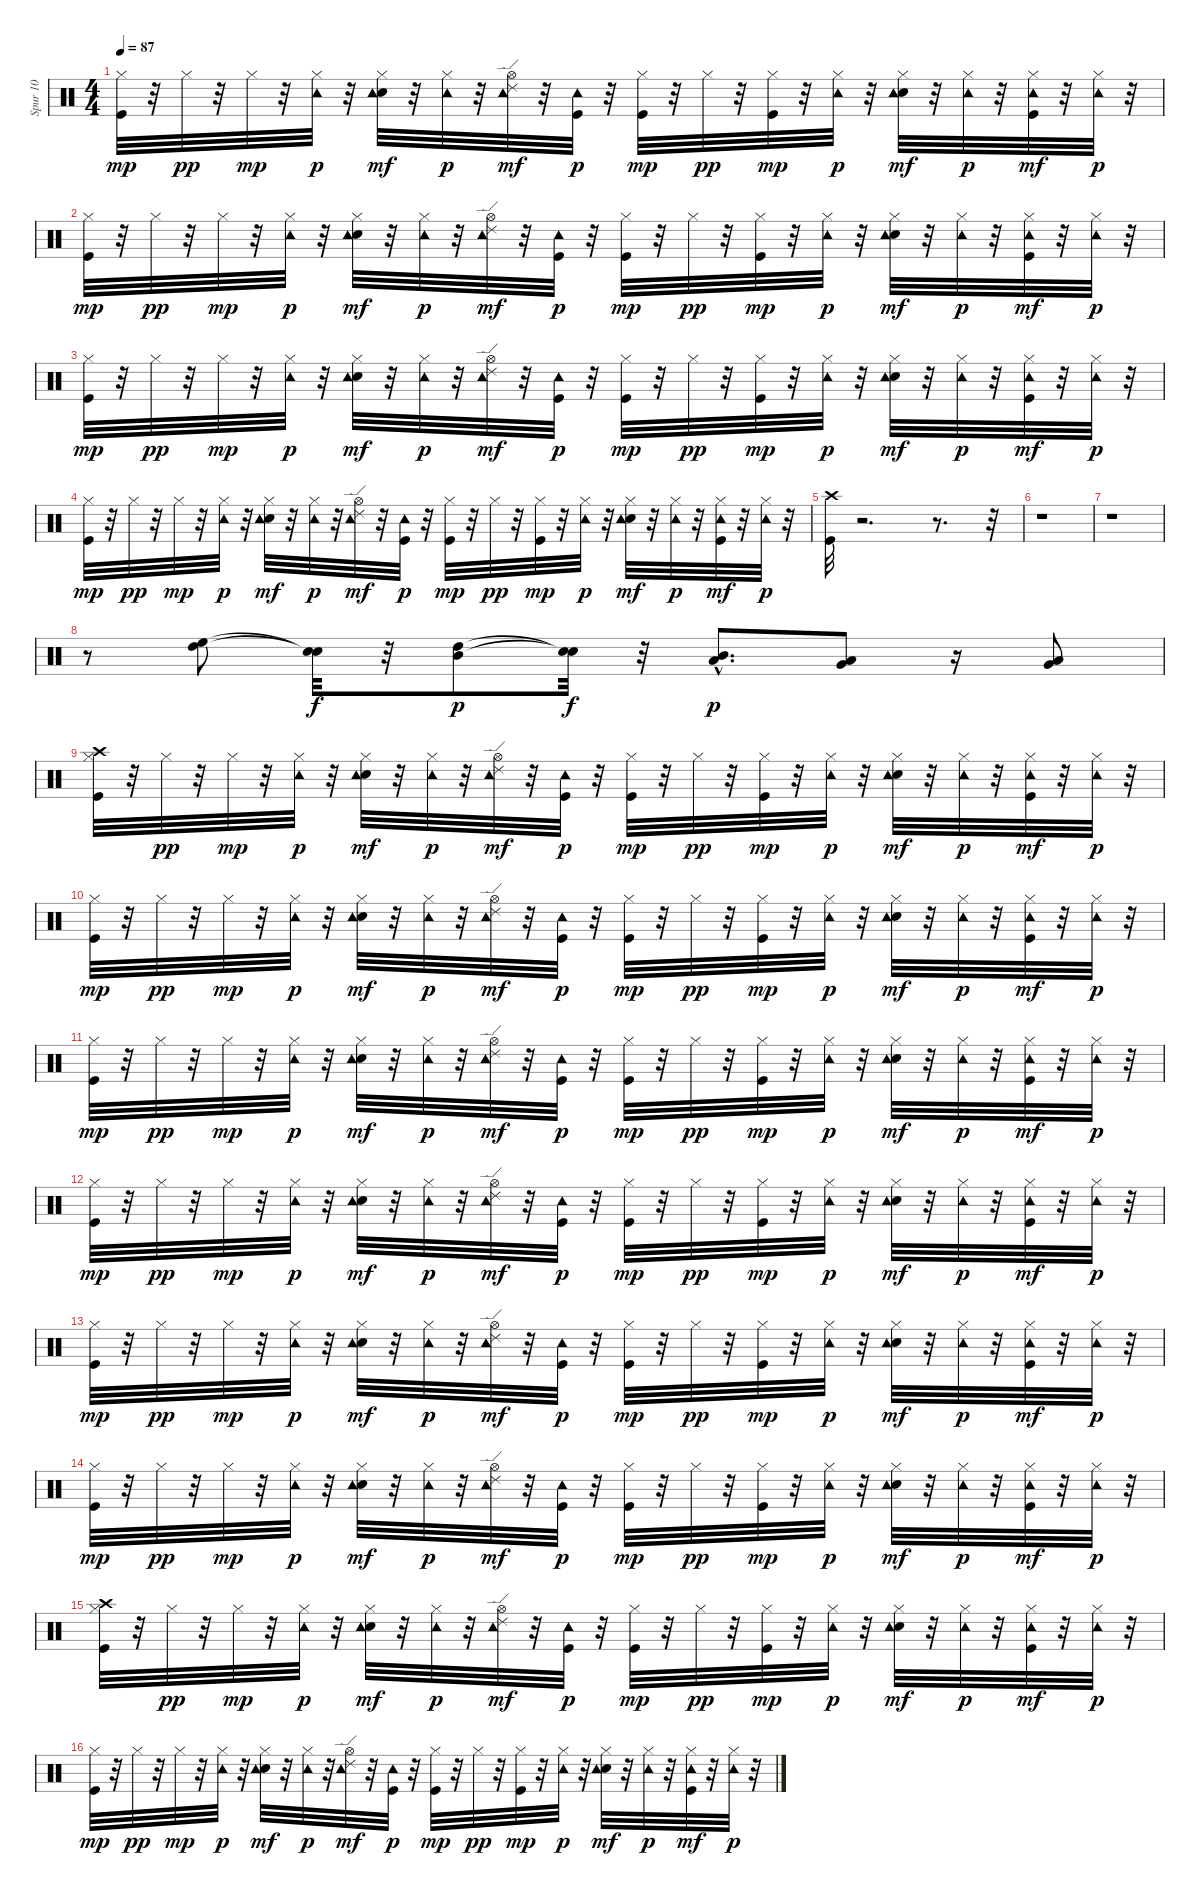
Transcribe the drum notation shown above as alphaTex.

\track ("Spur 10" "Spur 10") {instrument percussion}
\staff {score}
\articulation defaults
\ts (4 4)
\tempo 87
\clef neutral
\ks c
("Kick (hit)" "Hi-Hat (closed)").32{dy mp} r.32 "Hi-Hat (closed)".32{dy pp} r.32 "Hi-Hat (closed)".32{dy mp} r.32 ("Hi-Hat (closed)" "Tambourine (hit)").32{dy p} r.32 ("Electric Snare (hit)" "Hi-Hat (closed)" "Tambourine (hit)").32{dy mf} r.32 ("Hi-Hat (closed)" "Tambourine (hit)").32{dy p} r.32 ("Hi-Hat (open)" "Tambourine (hit)" "Ride (edge) 2").32{dy mf} r.32 ("Kick (hit)" "Tambourine (hit)").32{dy p} r.32 ("Kick (hit)" "Hi-Hat (closed)").32{dy mp} r.32 "Hi-Hat (closed)".32{dy pp} r.32 ("Kick (hit)" "Hi-Hat (closed)").32{dy mp} r.32 ("Hi-Hat (closed)" "Tambourine (hit)").32{dy p} r.32 ("Electric Snare (hit)" "Hi-Hat (closed)" "Tambourine (hit)").32{dy mf} r.32 ("Hi-Hat (closed)" "Tambourine (hit)").32{dy p} r.32 ("Kick (hit)" "Hi-Hat (closed)" "Tambourine (hit)").32{dy mf} r.32 ("Hi-Hat (closed)" "Tambourine (hit)").32{dy p} r.32 |
("Kick (hit)" "Hi-Hat (closed)").32{dy mp} r.32 "Hi-Hat (closed)".32{dy pp} r.32 "Hi-Hat (closed)".32{dy mp} r.32 ("Hi-Hat (closed)" "Tambourine (hit)").32{dy p} r.32 ("Electric Snare (hit)" "Hi-Hat (closed)" "Tambourine (hit)").32{dy mf} r.32 ("Hi-Hat (closed)" "Tambourine (hit)").32{dy p} r.32 ("Hi-Hat (open)" "Tambourine (hit)" "Ride (edge) 2").32{dy mf} r.32 ("Kick (hit)" "Tambourine (hit)").32{dy p} r.32 ("Kick (hit)" "Hi-Hat (closed)").32{dy mp} r.32 "Hi-Hat (closed)".32{dy pp} r.32 ("Kick (hit)" "Hi-Hat (closed)").32{dy mp} r.32 ("Hi-Hat (closed)" "Tambourine (hit)").32{dy p} r.32 ("Electric Snare (hit)" "Hi-Hat (closed)" "Tambourine (hit)").32{dy mf} r.32 ("Hi-Hat (closed)" "Tambourine (hit)").32{dy p} r.32 ("Kick (hit)" "Hi-Hat (closed)" "Tambourine (hit)").32{dy mf} r.32 ("Hi-Hat (closed)" "Tambourine (hit)").32{dy p} r.32 |
("Kick (hit)" "Hi-Hat (closed)").32{dy mp} r.32 "Hi-Hat (closed)".32{dy pp} r.32 "Hi-Hat (closed)".32{dy mp} r.32 ("Hi-Hat (closed)" "Tambourine (hit)").32{dy p} r.32 ("Electric Snare (hit)" "Hi-Hat (closed)" "Tambourine (hit)").32{dy mf} r.32 ("Hi-Hat (closed)" "Tambourine (hit)").32{dy p} r.32 ("Hi-Hat (open)" "Tambourine (hit)" "Ride (edge) 2").32{dy mf} r.32 ("Kick (hit)" "Tambourine (hit)").32{dy p} r.32 ("Kick (hit)" "Hi-Hat (closed)").32{dy mp} r.32 "Hi-Hat (closed)".32{dy pp} r.32 ("Kick (hit)" "Hi-Hat (closed)").32{dy mp} r.32 ("Hi-Hat (closed)" "Tambourine (hit)").32{dy p} r.32 ("Electric Snare (hit)" "Hi-Hat (closed)" "Tambourine (hit)").32{dy mf} r.32 ("Hi-Hat (closed)" "Tambourine (hit)").32{dy p} r.32 ("Kick (hit)" "Hi-Hat (closed)" "Tambourine (hit)").32{dy mf} r.32 ("Hi-Hat (closed)" "Tambourine (hit)").32{dy p} r.32 |
("Kick (hit)" "Hi-Hat (closed)").32{dy mp} r.32 "Hi-Hat (closed)".32{dy pp} r.32 "Hi-Hat (closed)".32{dy mp} r.32 ("Hi-Hat (closed)" "Tambourine (hit)").32{dy p} r.32 ("Electric Snare (hit)" "Hi-Hat (closed)" "Tambourine (hit)").32{dy mf} r.32 ("Hi-Hat (closed)" "Tambourine (hit)").32{dy p} r.32 ("Hi-Hat (open)" "Tambourine (hit)" "Ride (edge) 2").32{dy mf} r.32 ("Kick (hit)" "Tambourine (hit)").32{dy p} r.32 ("Kick (hit)" "Hi-Hat (closed)").32{dy mp} r.32 "Hi-Hat (closed)".32{dy pp} r.32 ("Kick (hit)" "Hi-Hat (closed)").32{dy mp} r.32 ("Hi-Hat (closed)" "Tambourine (hit)").32{dy p} r.32 ("Electric Snare (hit)" "Hi-Hat (closed)" "Tambourine (hit)").32{dy mf} r.32 ("Hi-Hat (closed)" "Tambourine (hit)").32{dy p} r.32 ("Kick (hit)" "Hi-Hat (closed)" "Tambourine (hit)").32{dy mf} r.32 ("Hi-Hat (closed)" "Tambourine (hit)").32{dy p} r.32 |
("Kick (hit)" "Crash high (hit)").32 r.2{d} r.8{d} r.32 |
r.1 |
r.1 |
r.8 ("High Tom (hit)" "High Floor Tom (hit)").8 ("Snare (hit)"{t} "Snare (hit)"{t}).32{dy f} r.32 ("Mid Tom (hit)" "High Tom (hit)").8{dy p} ("Snare (hit)"{t} "Snare (hit)"{t}).32{dy f} r.32 ("Low Tom (hit)"{hac} "Mid Tom (hit)"{hac}).8{d dy p} ("Very Low Tom (hit)" "Low Tom (hit)").8 r.16 ("Very Low Tom (hit)" "Low Floor Tom (hit)").8 |
("Kick (hit)" "Hi-Hat (closed)" "Crash high (hit)").32 r.32 "Hi-Hat (closed)".32{dy pp} r.32 "Hi-Hat (closed)".32{dy mp} r.32 ("Hi-Hat (closed)" "Tambourine (hit)").32{dy p} r.32 ("Electric Snare (hit)" "Hi-Hat (closed)" "Tambourine (hit)").32{dy mf} r.32 ("Hi-Hat (closed)" "Tambourine (hit)").32{dy p} r.32 ("Hi-Hat (open)" "Tambourine (hit)" "Ride (edge) 2").32{dy mf} r.32 ("Kick (hit)" "Tambourine (hit)").32{dy p} r.32 ("Kick (hit)" "Hi-Hat (closed)").32{dy mp} r.32 "Hi-Hat (closed)".32{dy pp} r.32 ("Kick (hit)" "Hi-Hat (closed)").32{dy mp} r.32 ("Hi-Hat (closed)" "Tambourine (hit)").32{dy p} r.32 ("Electric Snare (hit)" "Hi-Hat (closed)" "Tambourine (hit)").32{dy mf} r.32 ("Hi-Hat (closed)" "Tambourine (hit)").32{dy p} r.32 ("Kick (hit)" "Hi-Hat (closed)" "Tambourine (hit)").32{dy mf} r.32 ("Hi-Hat (closed)" "Tambourine (hit)").32{dy p} r.32 |
("Kick (hit)" "Hi-Hat (closed)").32{dy mp} r.32 "Hi-Hat (closed)".32{dy pp} r.32 "Hi-Hat (closed)".32{dy mp} r.32 ("Hi-Hat (closed)" "Tambourine (hit)").32{dy p} r.32 ("Electric Snare (hit)" "Hi-Hat (closed)" "Tambourine (hit)").32{dy mf} r.32 ("Hi-Hat (closed)" "Tambourine (hit)").32{dy p} r.32 ("Hi-Hat (open)" "Tambourine (hit)" "Ride (edge) 2").32{dy mf} r.32 ("Kick (hit)" "Tambourine (hit)").32{dy p} r.32 ("Kick (hit)" "Hi-Hat (closed)").32{dy mp} r.32 "Hi-Hat (closed)".32{dy pp} r.32 ("Kick (hit)" "Hi-Hat (closed)").32{dy mp} r.32 ("Hi-Hat (closed)" "Tambourine (hit)").32{dy p} r.32 ("Electric Snare (hit)" "Hi-Hat (closed)" "Tambourine (hit)").32{dy mf} r.32 ("Hi-Hat (closed)" "Tambourine (hit)").32{dy p} r.32 ("Kick (hit)" "Hi-Hat (closed)" "Tambourine (hit)").32{dy mf} r.32 ("Hi-Hat (closed)" "Tambourine (hit)").32{dy p} r.32 |
("Kick (hit)" "Hi-Hat (closed)").32{dy mp} r.32 "Hi-Hat (closed)".32{dy pp} r.32 "Hi-Hat (closed)".32{dy mp} r.32 ("Hi-Hat (closed)" "Tambourine (hit)").32{dy p} r.32 ("Electric Snare (hit)" "Hi-Hat (closed)" "Tambourine (hit)").32{dy mf} r.32 ("Hi-Hat (closed)" "Tambourine (hit)").32{dy p} r.32 ("Hi-Hat (open)" "Tambourine (hit)" "Ride (edge) 2").32{dy mf} r.32 ("Kick (hit)" "Tambourine (hit)").32{dy p} r.32 ("Kick (hit)" "Hi-Hat (closed)").32{dy mp} r.32 "Hi-Hat (closed)".32{dy pp} r.32 ("Kick (hit)" "Hi-Hat (closed)").32{dy mp} r.32 ("Hi-Hat (closed)" "Tambourine (hit)").32{dy p} r.32 ("Electric Snare (hit)" "Hi-Hat (closed)" "Tambourine (hit)").32{dy mf} r.32 ("Hi-Hat (closed)" "Tambourine (hit)").32{dy p} r.32 ("Kick (hit)" "Hi-Hat (closed)" "Tambourine (hit)").32{dy mf} r.32 ("Hi-Hat (closed)" "Tambourine (hit)").32{dy p} r.32 |
("Kick (hit)" "Hi-Hat (closed)").32{dy mp} r.32 "Hi-Hat (closed)".32{dy pp} r.32 "Hi-Hat (closed)".32{dy mp} r.32 ("Hi-Hat (closed)" "Tambourine (hit)").32{dy p} r.32 ("Electric Snare (hit)" "Hi-Hat (closed)" "Tambourine (hit)").32{dy mf} r.32 ("Hi-Hat (closed)" "Tambourine (hit)").32{dy p} r.32 ("Hi-Hat (open)" "Tambourine (hit)" "Ride (edge) 2").32{dy mf} r.32 ("Kick (hit)" "Tambourine (hit)").32{dy p} r.32 ("Kick (hit)" "Hi-Hat (closed)").32{dy mp} r.32 "Hi-Hat (closed)".32{dy pp} r.32 ("Kick (hit)" "Hi-Hat (closed)").32{dy mp} r.32 ("Hi-Hat (closed)" "Tambourine (hit)").32{dy p} r.32 ("Electric Snare (hit)" "Hi-Hat (closed)" "Tambourine (hit)").32{dy mf} r.32 ("Hi-Hat (closed)" "Tambourine (hit)").32{dy p} r.32 ("Kick (hit)" "Hi-Hat (closed)" "Tambourine (hit)").32{dy mf} r.32 ("Hi-Hat (closed)" "Tambourine (hit)").32{dy p} r.32 |
("Kick (hit)" "Hi-Hat (closed)").32{dy mp} r.32 "Hi-Hat (closed)".32{dy pp} r.32 "Hi-Hat (closed)".32{dy mp} r.32 ("Hi-Hat (closed)" "Tambourine (hit)").32{dy p} r.32 ("Electric Snare (hit)" "Hi-Hat (closed)" "Tambourine (hit)").32{dy mf} r.32 ("Hi-Hat (closed)" "Tambourine (hit)").32{dy p} r.32 ("Hi-Hat (open)" "Tambourine (hit)" "Ride (edge) 2").32{dy mf} r.32 ("Kick (hit)" "Tambourine (hit)").32{dy p} r.32 ("Kick (hit)" "Hi-Hat (closed)").32{dy mp} r.32 "Hi-Hat (closed)".32{dy pp} r.32 ("Kick (hit)" "Hi-Hat (closed)").32{dy mp} r.32 ("Hi-Hat (closed)" "Tambourine (hit)").32{dy p} r.32 ("Electric Snare (hit)" "Hi-Hat (closed)" "Tambourine (hit)").32{dy mf} r.32 ("Hi-Hat (closed)" "Tambourine (hit)").32{dy p} r.32 ("Kick (hit)" "Hi-Hat (closed)" "Tambourine (hit)").32{dy mf} r.32 ("Hi-Hat (closed)" "Tambourine (hit)").32{dy p} r.32 |
("Kick (hit)" "Hi-Hat (closed)").32{dy mp} r.32 "Hi-Hat (closed)".32{dy pp} r.32 "Hi-Hat (closed)".32{dy mp} r.32 ("Hi-Hat (closed)" "Tambourine (hit)").32{dy p} r.32 ("Electric Snare (hit)" "Hi-Hat (closed)" "Tambourine (hit)").32{dy mf} r.32 ("Hi-Hat (closed)" "Tambourine (hit)").32{dy p} r.32 ("Hi-Hat (open)" "Tambourine (hit)" "Ride (edge) 2").32{dy mf} r.32 ("Kick (hit)" "Tambourine (hit)").32{dy p} r.32 ("Kick (hit)" "Hi-Hat (closed)").32{dy mp} r.32 "Hi-Hat (closed)".32{dy pp} r.32 ("Kick (hit)" "Hi-Hat (closed)").32{dy mp} r.32 ("Hi-Hat (closed)" "Tambourine (hit)").32{dy p} r.32 ("Electric Snare (hit)" "Hi-Hat (closed)" "Tambourine (hit)").32{dy mf} r.32 ("Hi-Hat (closed)" "Tambourine (hit)").32{dy p} r.32 ("Kick (hit)" "Hi-Hat (closed)" "Tambourine (hit)").32{dy mf} r.32 ("Hi-Hat (closed)" "Tambourine (hit)").32{dy p} r.32 |
("Kick (hit)" "Hi-Hat (closed)" "Crash high (hit)").32 r.32 "Hi-Hat (closed)".32{dy pp} r.32 "Hi-Hat (closed)".32{dy mp} r.32 ("Hi-Hat (closed)" "Tambourine (hit)").32{dy p} r.32 ("Electric Snare (hit)" "Hi-Hat (closed)" "Tambourine (hit)").32{dy mf} r.32 ("Hi-Hat (closed)" "Tambourine (hit)").32{dy p} r.32 ("Hi-Hat (open)" "Tambourine (hit)" "Ride (edge) 2").32{dy mf} r.32 ("Kick (hit)" "Tambourine (hit)").32{dy p} r.32 ("Kick (hit)" "Hi-Hat (closed)").32{dy mp} r.32 "Hi-Hat (closed)".32{dy pp} r.32 ("Kick (hit)" "Hi-Hat (closed)").32{dy mp} r.32 ("Hi-Hat (closed)" "Tambourine (hit)").32{dy p} r.32 ("Electric Snare (hit)" "Hi-Hat (closed)" "Tambourine (hit)").32{dy mf} r.32 ("Hi-Hat (closed)" "Tambourine (hit)").32{dy p} r.32 ("Kick (hit)" "Hi-Hat (closed)" "Tambourine (hit)").32{dy mf} r.32 ("Hi-Hat (closed)" "Tambourine (hit)").32{dy p} r.32 |
("Kick (hit)" "Hi-Hat (closed)").32{dy mp} r.32 "Hi-Hat (closed)".32{dy pp} r.32 "Hi-Hat (closed)".32{dy mp} r.32 ("Hi-Hat (closed)" "Tambourine (hit)").32{dy p} r.32 ("Electric Snare (hit)" "Hi-Hat (closed)" "Tambourine (hit)").32{dy mf} r.32 ("Hi-Hat (closed)" "Tambourine (hit)").32{dy p} r.32 ("Hi-Hat (open)" "Tambourine (hit)" "Ride (edge) 2").32{dy mf} r.32 ("Kick (hit)" "Tambourine (hit)").32{dy p} r.32 ("Kick (hit)" "Hi-Hat (closed)").32{dy mp} r.32 "Hi-Hat (closed)".32{dy pp} r.32 ("Kick (hit)" "Hi-Hat (closed)").32{dy mp} r.32 ("Hi-Hat (closed)" "Tambourine (hit)").32{dy p} r.32 ("Electric Snare (hit)" "Hi-Hat (closed)" "Tambourine (hit)").32{dy mf} r.32 ("Hi-Hat (closed)" "Tambourine (hit)").32{dy p} r.32 ("Kick (hit)" "Hi-Hat (closed)" "Tambourine (hit)").32{dy mf} r.32 ("Hi-Hat (closed)" "Tambourine (hit)").32{dy p} r.32
